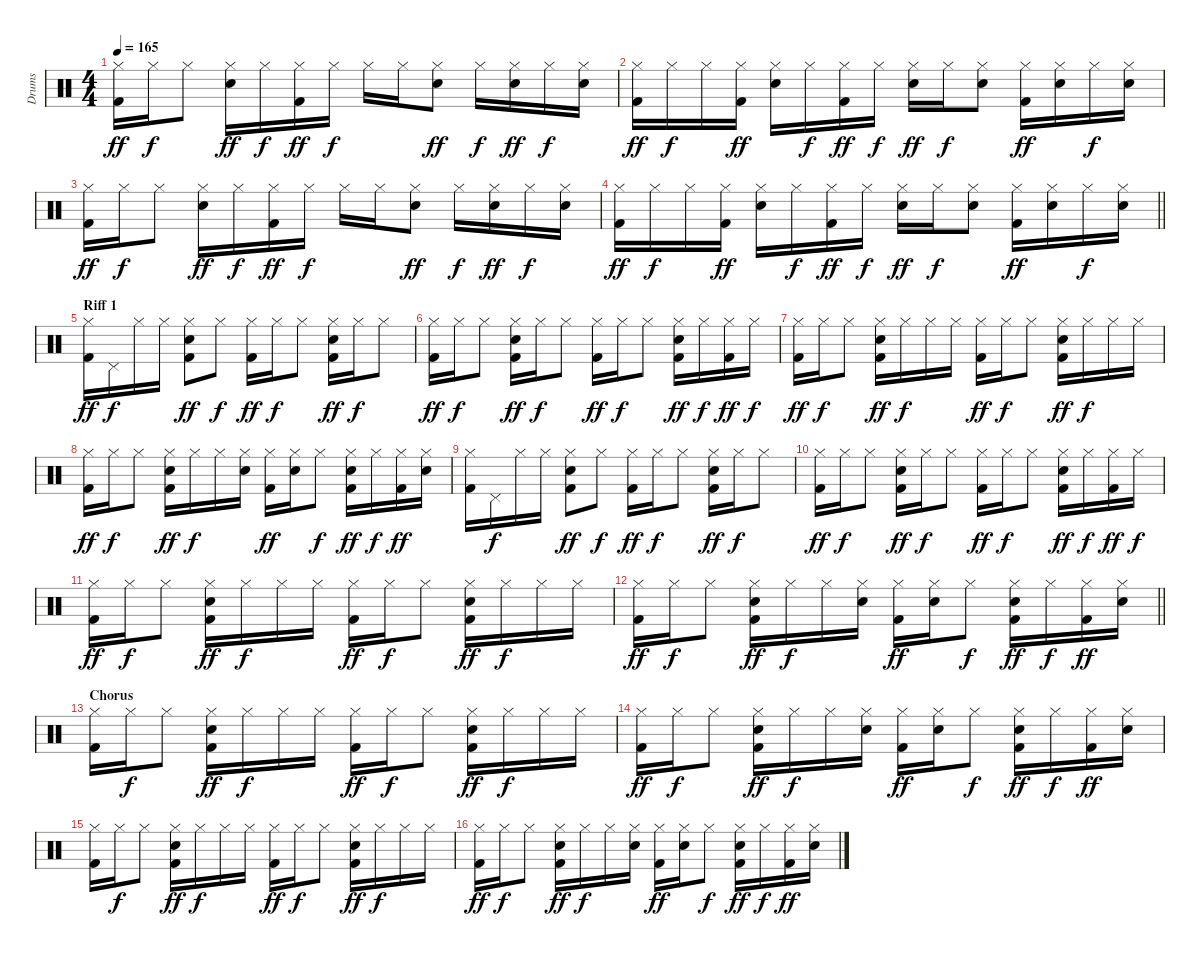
\track ("Drums" "Drums") {instrument percussion}
\staff {score}
\articulation defaults
\ts (4 4)
\tempo 165
\clef neutral
\ks c
("Kick (hit) 2" "Hi-Hat (closed)").16{dy ff} "Hi-Hat (closed)".16{dy f} "Hi-Hat (closed)".8 ("Snare (hit) 2" "Hi-Hat (closed)").16{dy ff} "Hi-Hat (closed)".16{dy f} ("Kick (hit) 2" "Hi-Hat (closed)").16{dy ff} "Hi-Hat (closed)".16{dy f} "Hi-Hat (closed)".16 "Hi-Hat (closed)".16 ("Snare (hit) 2" "Hi-Hat (closed)").8{dy ff} "Hi-Hat (closed)".16{dy f} ("Snare (hit) 2" "Hi-Hat (closed)").16{dy ff} "Hi-Hat (closed)".16{dy f} ("Snare (hit) 2" "Hi-Hat (closed)").16 |
("Kick (hit) 2" "Hi-Hat (closed)").16{dy ff} "Hi-Hat (closed)".16{dy f} "Hi-Hat (closed)".16 ("Kick (hit) 2" "Hi-Hat (closed)").16{dy ff} ("Snare (hit) 2" "Hi-Hat (closed)").16 "Hi-Hat (closed)".16{dy f} ("Kick (hit) 2" "Hi-Hat (closed)").16{dy ff} "Hi-Hat (closed)".16{dy f} ("Snare (hit) 2" "Hi-Hat (closed)").16{dy ff} "Hi-Hat (closed)".16{dy f} ("Snare (hit) 2" "Hi-Hat (closed)").8 ("Kick (hit) 2" "Hi-Hat (closed)").16{dy ff} ("Snare (hit) 2" "Hi-Hat (closed)").16 "Hi-Hat (closed)".16{dy f} ("Snare (hit) 2" "Hi-Hat (closed)").16 |
("Kick (hit) 2" "Hi-Hat (closed)").16{dy ff} "Hi-Hat (closed)".16{dy f} "Hi-Hat (closed)".8 ("Snare (hit) 2" "Hi-Hat (closed)").16{dy ff} "Hi-Hat (closed)".16{dy f} ("Kick (hit) 2" "Hi-Hat (closed)").16{dy ff} "Hi-Hat (closed)".16{dy f} "Hi-Hat (closed)".16 "Hi-Hat (closed)".16 ("Snare (hit) 2" "Hi-Hat (closed)").8{dy ff} "Hi-Hat (closed)".16{dy f} ("Snare (hit) 2" "Hi-Hat (closed)").16{dy ff} "Hi-Hat (closed)".16{dy f} ("Snare (hit) 2" "Hi-Hat (closed)").16 |
\barLineRight lightlight
("Kick (hit) 2" "Hi-Hat (closed)").16{dy ff} "Hi-Hat (closed)".16{dy f} "Hi-Hat (closed)".16 ("Kick (hit) 2" "Hi-Hat (closed)").16{dy ff} ("Snare (hit) 2" "Hi-Hat (closed)").16 "Hi-Hat (closed)".16{dy f} ("Kick (hit) 2" "Hi-Hat (closed)").16{dy ff} "Hi-Hat (closed)".16{dy f} ("Snare (hit) 2" "Hi-Hat (closed)").16{dy ff} "Hi-Hat (closed)".16{dy f} ("Snare (hit) 2" "Hi-Hat (closed)").8 ("Kick (hit) 2" "Hi-Hat (closed)").16{dy ff} ("Snare (hit) 2" "Hi-Hat (closed)").16 "Hi-Hat (closed)".16{dy f} ("Snare (hit) 2" "Hi-Hat (closed)").16 |
\section ("" "Riff 1")
("Kick (hit) 2" "Hi-Hat (closed)").16{dy ff} "Pedal Hi-Hat (hit)".16{dy f} "Hi-Hat (closed)".16 "Hi-Hat (closed)".16 ("Kick (hit) 2" "Snare (hit) 2" "Hi-Hat (closed)").8{dy ff} "Hi-Hat (closed)".8{dy f} ("Kick (hit) 2" "Hi-Hat (closed)").16{dy ff} "Hi-Hat (closed)".16{dy f} "Hi-Hat (closed)".8 ("Kick (hit) 2" "Snare (hit) 2" "Hi-Hat (closed)").16{dy ff} "Hi-Hat (closed)".16{dy f} "Hi-Hat (closed)".8 |
("Kick (hit) 2" "Hi-Hat (closed)").16{dy ff} "Hi-Hat (closed)".16{dy f} "Hi-Hat (closed)".8 ("Kick (hit) 2" "Snare (hit) 2" "Hi-Hat (closed)").16{dy ff} "Hi-Hat (closed)".16{dy f} "Hi-Hat (closed)".8 ("Kick (hit) 2" "Hi-Hat (closed)").16{dy ff} "Hi-Hat (closed)".16{dy f} "Hi-Hat (closed)".8 ("Kick (hit) 2" "Snare (hit) 2" "Hi-Hat (closed)").16{dy ff} "Hi-Hat (closed)".16{dy f} ("Kick (hit) 2" "Hi-Hat (closed)").16{dy ff} "Hi-Hat (closed)".16{dy f} |
("Kick (hit) 2" "Hi-Hat (closed)").16{dy ff} "Hi-Hat (closed)".16{dy f} "Hi-Hat (closed)".8 ("Kick (hit) 2" "Snare (hit) 2" "Hi-Hat (closed)").16{dy ff} "Hi-Hat (closed)".16{dy f} "Hi-Hat (closed)".16 "Hi-Hat (closed)".16 ("Kick (hit) 2" "Hi-Hat (closed)").16{dy ff} "Hi-Hat (closed)".16{dy f} "Hi-Hat (closed)".8 ("Kick (hit) 2" "Snare (hit) 2" "Hi-Hat (closed)").16{dy ff} "Hi-Hat (closed)".16{dy f} "Hi-Hat (closed)".16 "Hi-Hat (closed)".16 |
("Kick (hit) 2" "Hi-Hat (closed)").16{dy ff} "Hi-Hat (closed)".16{dy f} "Hi-Hat (closed)".8 ("Kick (hit) 2" "Snare (hit) 2" "Hi-Hat (closed)").16{dy ff} "Hi-Hat (closed)".16{dy f} "Hi-Hat (closed)".16 ("Snare (hit) 2" "Hi-Hat (closed)").16 ("Kick (hit) 2" "Hi-Hat (closed)").16{dy ff} ("Snare (hit) 2" "Hi-Hat (closed)").16 "Hi-Hat (closed)".8{dy f} ("Kick (hit) 2" "Snare (hit) 2" "Hi-Hat (closed)").16{dy ff} "Hi-Hat (closed)".16{dy f} ("Kick (hit) 2" "Hi-Hat (closed)").16{dy ff} ("Snare (hit) 2" "Hi-Hat (closed)").16 |
("Kick (hit) 2" "Hi-Hat (closed)").16 "Pedal Hi-Hat (hit)".16{dy f} "Hi-Hat (closed)".16 "Hi-Hat (closed)".16 ("Kick (hit) 2" "Snare (hit) 2" "Hi-Hat (closed)").8{dy ff} "Hi-Hat (closed)".8{dy f} ("Kick (hit) 2" "Hi-Hat (closed)").16{dy ff} "Hi-Hat (closed)".16{dy f} "Hi-Hat (closed)".8 ("Kick (hit) 2" "Snare (hit) 2" "Hi-Hat (closed)").16{dy ff} "Hi-Hat (closed)".16{dy f} "Hi-Hat (closed)".8 |
("Kick (hit) 2" "Hi-Hat (closed)").16{dy ff} "Hi-Hat (closed)".16{dy f} "Hi-Hat (closed)".8 ("Kick (hit) 2" "Snare (hit) 2" "Hi-Hat (closed)").16{dy ff} "Hi-Hat (closed)".16{dy f} "Hi-Hat (closed)".8 ("Kick (hit) 2" "Hi-Hat (closed)").16{dy ff} "Hi-Hat (closed)".16{dy f} "Hi-Hat (closed)".8 ("Kick (hit) 2" "Snare (hit) 2" "Hi-Hat (closed)").16{dy ff} "Hi-Hat (closed)".16{dy f} ("Kick (hit) 2" "Hi-Hat (closed)").16{dy ff} "Hi-Hat (closed)".16{dy f} |
("Kick (hit) 2" "Hi-Hat (closed)").16{dy ff} "Hi-Hat (closed)".16{dy f} "Hi-Hat (closed)".8 ("Kick (hit) 2" "Snare (hit) 2" "Hi-Hat (closed)").16{dy ff} "Hi-Hat (closed)".16{dy f} "Hi-Hat (closed)".16 "Hi-Hat (closed)".16 ("Kick (hit) 2" "Hi-Hat (closed)").16{dy ff} "Hi-Hat (closed)".16{dy f} "Hi-Hat (closed)".8 ("Kick (hit) 2" "Snare (hit) 2" "Hi-Hat (closed)").16{dy ff} "Hi-Hat (closed)".16{dy f} "Hi-Hat (closed)".16 "Hi-Hat (closed)".16 |
\barLineRight lightlight
("Kick (hit) 2" "Hi-Hat (closed)").16{dy ff} "Hi-Hat (closed)".16{dy f} "Hi-Hat (closed)".8 ("Kick (hit) 2" "Snare (hit) 2" "Hi-Hat (closed)").16{dy ff} "Hi-Hat (closed)".16{dy f} "Hi-Hat (closed)".16 ("Snare (hit) 2" "Hi-Hat (closed)").16 ("Kick (hit) 2" "Hi-Hat (closed)").16{dy ff} ("Snare (hit) 2" "Hi-Hat (closed)").16 "Hi-Hat (closed)".8{dy f} ("Kick (hit) 2" "Snare (hit) 2" "Hi-Hat (closed)").16{dy ff} "Hi-Hat (closed)".16{dy f} ("Kick (hit) 2" "Hi-Hat (closed)").16{dy ff} ("Snare (hit) 2" "Hi-Hat (closed)").16 |
\section ("" "Chorus")
("Kick (hit) 2" "Hi-Hat (closed)").16 "Hi-Hat (closed)".16{dy f} "Hi-Hat (closed)".8 ("Kick (hit) 2" "Snare (hit) 2" "Hi-Hat (closed)").16{dy ff} "Hi-Hat (closed)".16{dy f} "Hi-Hat (closed)".16 "Hi-Hat (closed)".16 ("Kick (hit) 2" "Hi-Hat (closed)").16{dy ff} "Hi-Hat (closed)".16{dy f} "Hi-Hat (closed)".8 ("Kick (hit) 2" "Snare (hit) 2" "Hi-Hat (closed)").16{dy ff} "Hi-Hat (closed)".16{dy f} "Hi-Hat (closed)".16 "Hi-Hat (closed)".16 |
("Kick (hit) 2" "Hi-Hat (closed)").16{dy ff} "Hi-Hat (closed)".16{dy f} "Hi-Hat (closed)".8 ("Kick (hit) 2" "Snare (hit) 2" "Hi-Hat (closed)").16{dy ff} "Hi-Hat (closed)".16{dy f} "Hi-Hat (closed)".16 ("Snare (hit) 2" "Hi-Hat (closed)").16 ("Kick (hit) 2" "Hi-Hat (closed)").16{dy ff} ("Snare (hit) 2" "Hi-Hat (closed)").16 "Hi-Hat (closed)".8{dy f} ("Kick (hit) 2" "Snare (hit) 2" "Hi-Hat (closed)").16{dy ff} "Hi-Hat (closed)".16{dy f} ("Kick (hit) 2" "Hi-Hat (closed)").16{dy ff} ("Snare (hit) 2" "Hi-Hat (closed)").16 |
("Kick (hit) 2" "Hi-Hat (closed)").16 "Hi-Hat (closed)".16{dy f} "Hi-Hat (closed)".8 ("Kick (hit) 2" "Snare (hit) 2" "Hi-Hat (closed)").16{dy ff} "Hi-Hat (closed)".16{dy f} "Hi-Hat (closed)".16 "Hi-Hat (closed)".16 ("Kick (hit) 2" "Hi-Hat (closed)").16{dy ff} "Hi-Hat (closed)".16{dy f} "Hi-Hat (closed)".8 ("Kick (hit) 2" "Snare (hit) 2" "Hi-Hat (closed)").16{dy ff} "Hi-Hat (closed)".16{dy f} "Hi-Hat (closed)".16 "Hi-Hat (closed)".16 |
("Kick (hit) 2" "Hi-Hat (closed)").16{dy ff} "Hi-Hat (closed)".16{dy f} "Hi-Hat (closed)".8 ("Kick (hit) 2" "Snare (hit) 2" "Hi-Hat (closed)").16{dy ff} "Hi-Hat (closed)".16{dy f} "Hi-Hat (closed)".16 ("Snare (hit) 2" "Hi-Hat (closed)").16 ("Kick (hit) 2" "Hi-Hat (closed)").16{dy ff} ("Snare (hit) 2" "Hi-Hat (closed)").16 "Hi-Hat (closed)".8{dy f} ("Kick (hit) 2" "Snare (hit) 2" "Hi-Hat (closed)").16{dy ff} "Hi-Hat (closed)".16{dy f} ("Kick (hit) 2" "Hi-Hat (closed)").16{dy ff} ("Snare (hit) 2" "Hi-Hat (closed)").16
